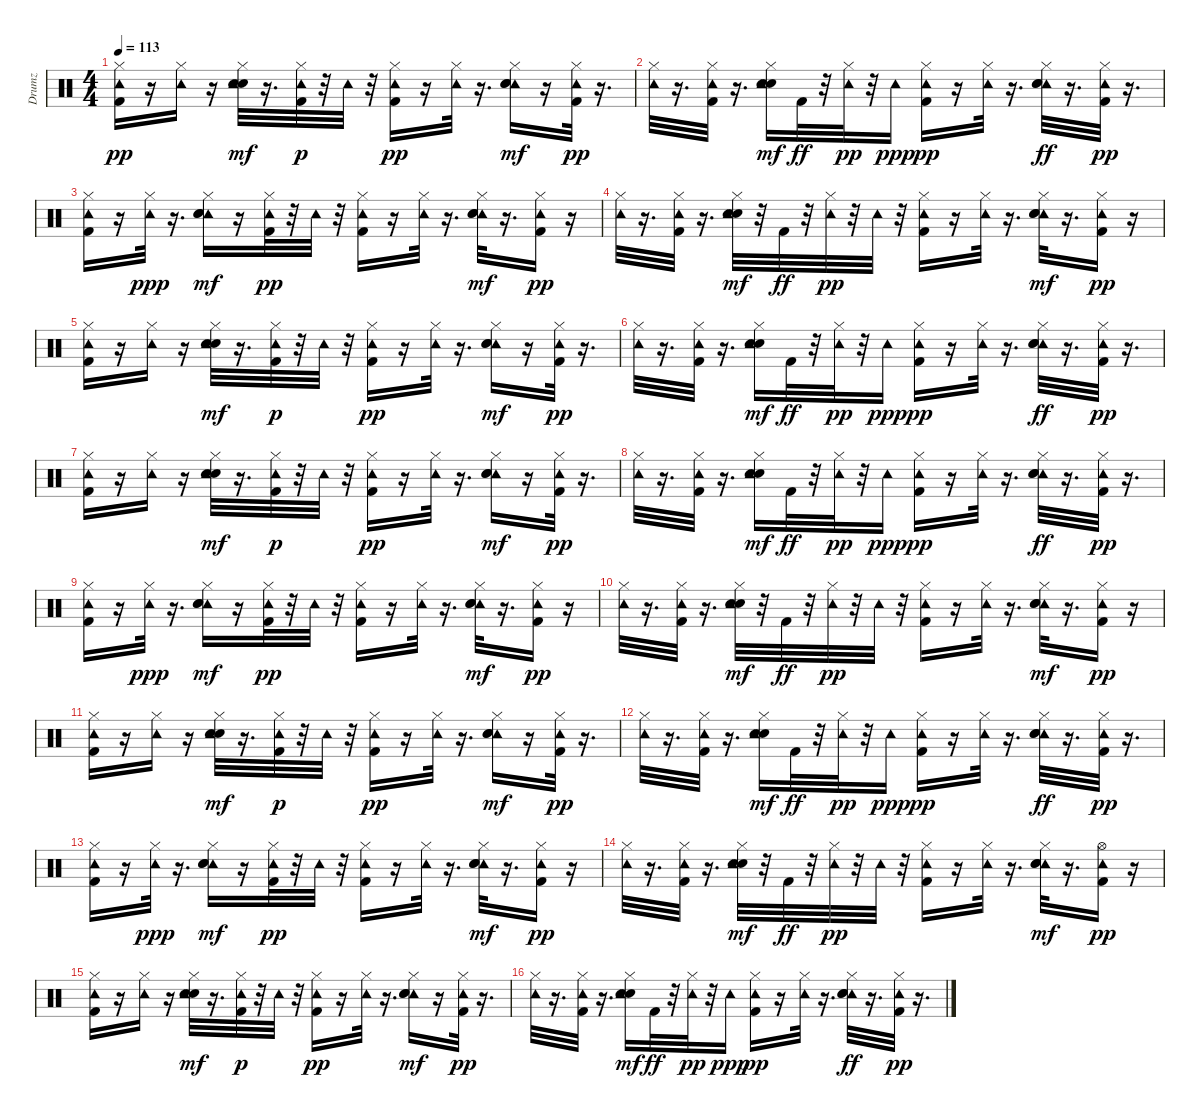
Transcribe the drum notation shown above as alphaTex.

\track ("Drumz" "Drumz") {instrument percussion}
\staff {score}
\articulation defaults
\ts (4 4)
\tempo 113
\clef neutral
\ks c
("Hi-Hat (closed)" "Kick (hit) 2" "Tambourine (hit)").16{dy pp} r.16 ("Hi-Hat (closed)" "Tambourine (hit)").16 r.16 ("Electric Snare (hit)" "Hand Clap (hit)" "Hi-Hat (closed)" "Tambourine (hit)").32{dy mf} r.16{d} ("Hi-Hat (closed)" "Kick (hit) 2" "Tambourine (hit)").32{dy p} r.32 "Tambourine (hit)".32 r.32 ("Kick (hit) 2" "Hi-Hat (closed)" "Tambourine (hit)").16{dy pp} r.16 ("Hi-Hat (closed)" "Tambourine (hit)").32 r.16{d} ("Tambourine (hit)" "Electric Snare (hit)" "Hi-Hat (closed)" "Hand Clap (hit)").16{dy mf} r.16 ("Hi-Hat (closed)" "Kick (hit) 2" "Tambourine (hit)").32{dy pp} r.16{d} |
("Hi-Hat (closed)" "Tambourine (hit)").32 r.16{d} ("Kick (hit) 2" "Hi-Hat (closed)" "Tambourine (hit)").32 r.16{d} ("Electric Snare (hit)" "Hand Clap (hit)" "Hi-Hat (closed)" "Tambourine (hit)").16{dy mf} "Kick (hit) 2".32{dy ff} r.32 ("Hi-Hat (closed)" "Tambourine (hit)").32{dy pp} r.32 "Tambourine (hit)".16{dy ppp} ("Hi-Hat (closed)" "Kick (hit) 2" "Tambourine (hit)").16{dy pp} r.16 ("Hi-Hat (closed)" "Tambourine (hit)").32 r.16{d} ("Tambourine (hit)" "Hi-Hat (closed)" "Hand Clap (hit)" "Electric Snare (hit)").32{dy ff} r.16{d} ("Hi-Hat (closed)" "Kick (hit) 2" "Tambourine (hit)").32{dy pp} r.16{d} |
("Hi-Hat (closed)" "Kick (hit) 2" "Tambourine (hit)").16 r.16 ("Hi-Hat (closed)" "Tambourine (hit)").32{dy ppp} r.16{d} ("Tambourine (hit)" "Electric Snare (hit)" "Hi-Hat (closed)" "Hand Clap (hit)").16{dy mf} r.16 ("Kick (hit) 2" "Hi-Hat (closed)" "Tambourine (hit)").32{dy pp} r.32 "Tambourine (hit)".32 r.32 ("Kick (hit) 2" "Hi-Hat (closed)" "Tambourine (hit)").16 r.16 ("Hi-Hat (closed)" "Tambourine (hit)").32 r.16{d} ("Tambourine (hit)" "Electric Snare (hit)" "Hi-Hat (closed)" "Hand Clap (hit)").32{dy mf} r.16{d} ("Hi-Hat (closed)" "Kick (hit) 2" "Tambourine (hit)").16{dy pp} r.16 |
("Hi-Hat (closed)" "Tambourine (hit)").32 r.16{d} ("Kick (hit) 2" "Hi-Hat (closed)" "Tambourine (hit)").32 r.16{d} ("Hand Clap (hit)" "Electric Snare (hit)" "Hi-Hat (closed)" "Tambourine (hit)").32{dy mf} r.32 "Kick (hit) 2".32{dy ff} r.32 ("Hi-Hat (closed)" "Tambourine (hit)").32{dy pp} r.32 "Tambourine (hit)".32 r.32 ("Kick (hit) 2" "Hi-Hat (closed)" "Tambourine (hit)").16 r.16 ("Hi-Hat (closed)" "Tambourine (hit)").32 r.16{d} ("Tambourine (hit)" "Hand Clap (hit)" "Electric Snare (hit)" "Hi-Hat (closed)").32{dy mf} r.16{d} ("Kick (hit) 2" "Hi-Hat (closed)" "Tambourine (hit)").16{dy pp} r.16 |
("Hi-Hat (closed)" "Kick (hit) 2" "Tambourine (hit)").16 r.16 ("Hi-Hat (closed)" "Tambourine (hit)").16 r.16 ("Electric Snare (hit)" "Hand Clap (hit)" "Hi-Hat (closed)" "Tambourine (hit)").32{dy mf} r.16{d} ("Hi-Hat (closed)" "Kick (hit) 2" "Tambourine (hit)").32{dy p} r.32 "Tambourine (hit)".32 r.32 ("Kick (hit) 2" "Hi-Hat (closed)" "Tambourine (hit)").16{dy pp} r.16 ("Hi-Hat (closed)" "Tambourine (hit)").32 r.16{d} ("Tambourine (hit)" "Electric Snare (hit)" "Hi-Hat (closed)" "Hand Clap (hit)").16{dy mf} r.16 ("Hi-Hat (closed)" "Kick (hit) 2" "Tambourine (hit)").32{dy pp} r.16{d} |
("Hi-Hat (closed)" "Tambourine (hit)").32 r.16{d} ("Kick (hit) 2" "Hi-Hat (closed)" "Tambourine (hit)").32 r.16{d} ("Electric Snare (hit)" "Hand Clap (hit)" "Hi-Hat (closed)" "Tambourine (hit)").16{dy mf} "Kick (hit) 2".32{dy ff} r.32 ("Hi-Hat (closed)" "Tambourine (hit)").32{dy pp} r.32 "Tambourine (hit)".16{dy ppp} ("Hi-Hat (closed)" "Kick (hit) 2" "Tambourine (hit)").16{dy pp} r.16 ("Hi-Hat (closed)" "Tambourine (hit)").32 r.16{d} ("Tambourine (hit)" "Hi-Hat (closed)" "Hand Clap (hit)" "Electric Snare (hit)").32{dy ff} r.16{d} ("Hi-Hat (closed)" "Kick (hit) 2" "Tambourine (hit)").32{dy pp} r.16{d} |
("Hi-Hat (closed)" "Kick (hit) 2" "Tambourine (hit)").16 r.16 ("Hi-Hat (closed)" "Tambourine (hit)").16 r.16 ("Electric Snare (hit)" "Hand Clap (hit)" "Hi-Hat (closed)" "Tambourine (hit)").32{dy mf} r.16{d} ("Hi-Hat (closed)" "Kick (hit) 2" "Tambourine (hit)").32{dy p} r.32 "Tambourine (hit)".32 r.32 ("Kick (hit) 2" "Hi-Hat (closed)" "Tambourine (hit)").16{dy pp} r.16 ("Hi-Hat (closed)" "Tambourine (hit)").32 r.16{d} ("Tambourine (hit)" "Electric Snare (hit)" "Hi-Hat (closed)" "Hand Clap (hit)").16{dy mf} r.16 ("Hi-Hat (closed)" "Kick (hit) 2" "Tambourine (hit)").32{dy pp} r.16{d} |
("Hi-Hat (closed)" "Tambourine (hit)").32 r.16{d} ("Kick (hit) 2" "Hi-Hat (closed)" "Tambourine (hit)").32 r.16{d} ("Electric Snare (hit)" "Hand Clap (hit)" "Hi-Hat (closed)" "Tambourine (hit)").16{dy mf} "Kick (hit) 2".32{dy ff} r.32 ("Hi-Hat (closed)" "Tambourine (hit)").32{dy pp} r.32 "Tambourine (hit)".16{dy ppp} ("Hi-Hat (closed)" "Kick (hit) 2" "Tambourine (hit)").16{dy pp} r.16 ("Hi-Hat (closed)" "Tambourine (hit)").32 r.16{d} ("Tambourine (hit)" "Hi-Hat (closed)" "Hand Clap (hit)" "Electric Snare (hit)").32{dy ff} r.16{d} ("Hi-Hat (closed)" "Kick (hit) 2" "Tambourine (hit)").32{dy pp} r.16{d} |
("Hi-Hat (closed)" "Kick (hit) 2" "Tambourine (hit)").16 r.16 ("Hi-Hat (closed)" "Tambourine (hit)").32{dy ppp} r.16{d} ("Tambourine (hit)" "Electric Snare (hit)" "Hi-Hat (closed)" "Hand Clap (hit)").16{dy mf} r.16 ("Kick (hit) 2" "Hi-Hat (closed)" "Tambourine (hit)").32{dy pp} r.32 "Tambourine (hit)".32 r.32 ("Kick (hit) 2" "Hi-Hat (closed)" "Tambourine (hit)").16 r.16 ("Hi-Hat (closed)" "Tambourine (hit)").32 r.16{d} ("Tambourine (hit)" "Electric Snare (hit)" "Hi-Hat (closed)" "Hand Clap (hit)").32{dy mf} r.16{d} ("Hi-Hat (closed)" "Kick (hit) 2" "Tambourine (hit)").16{dy pp} r.16 |
("Hi-Hat (closed)" "Tambourine (hit)").32 r.16{d} ("Kick (hit) 2" "Hi-Hat (closed)" "Tambourine (hit)").32 r.16{d} ("Hand Clap (hit)" "Electric Snare (hit)" "Hi-Hat (closed)" "Tambourine (hit)").32{dy mf} r.32 "Kick (hit) 2".32{dy ff} r.32 ("Hi-Hat (closed)" "Tambourine (hit)").32{dy pp} r.32 "Tambourine (hit)".32 r.32 ("Kick (hit) 2" "Hi-Hat (closed)" "Tambourine (hit)").16 r.16 ("Hi-Hat (closed)" "Tambourine (hit)").32 r.16{d} ("Tambourine (hit)" "Hand Clap (hit)" "Electric Snare (hit)" "Hi-Hat (closed)").32{dy mf} r.16{d} ("Kick (hit) 2" "Hi-Hat (closed)" "Tambourine (hit)").16{dy pp} r.16 |
("Hi-Hat (closed)" "Kick (hit) 2" "Tambourine (hit)").16 r.16 ("Hi-Hat (closed)" "Tambourine (hit)").16 r.16 ("Electric Snare (hit)" "Hand Clap (hit)" "Hi-Hat (closed)" "Tambourine (hit)").32{dy mf} r.16{d} ("Hi-Hat (closed)" "Kick (hit) 2" "Tambourine (hit)").32{dy p} r.32 "Tambourine (hit)".32 r.32 ("Kick (hit) 2" "Hi-Hat (closed)" "Tambourine (hit)").16{dy pp} r.16 ("Hi-Hat (closed)" "Tambourine (hit)").32 r.16{d} ("Tambourine (hit)" "Electric Snare (hit)" "Hi-Hat (closed)" "Hand Clap (hit)").16{dy mf} r.16 ("Hi-Hat (closed)" "Kick (hit) 2" "Tambourine (hit)").32{dy pp} r.16{d} |
("Hi-Hat (closed)" "Tambourine (hit)").32 r.16{d} ("Kick (hit) 2" "Hi-Hat (closed)" "Tambourine (hit)").32 r.16{d} ("Electric Snare (hit)" "Hand Clap (hit)" "Hi-Hat (closed)" "Tambourine (hit)").16{dy mf} "Kick (hit) 2".32{dy ff} r.32 ("Hi-Hat (closed)" "Tambourine (hit)").32{dy pp} r.32 "Tambourine (hit)".16{dy ppp} ("Hi-Hat (closed)" "Kick (hit) 2" "Tambourine (hit)").16{dy pp} r.16 ("Hi-Hat (closed)" "Tambourine (hit)").32 r.16{d} ("Tambourine (hit)" "Hi-Hat (closed)" "Hand Clap (hit)" "Electric Snare (hit)").32{dy ff} r.16{d} ("Hi-Hat (closed)" "Kick (hit) 2" "Tambourine (hit)").32{dy pp} r.16{d} |
("Hi-Hat (closed)" "Kick (hit) 2" "Tambourine (hit)").16 r.16 ("Hi-Hat (closed)" "Tambourine (hit)").32{dy ppp} r.16{d} ("Tambourine (hit)" "Electric Snare (hit)" "Hi-Hat (closed)" "Hand Clap (hit)").16{dy mf} r.16 ("Kick (hit) 2" "Hi-Hat (closed)" "Tambourine (hit)").32{dy pp} r.32 "Tambourine (hit)".32 r.32 ("Kick (hit) 2" "Hi-Hat (closed)" "Tambourine (hit)").16 r.16 ("Hi-Hat (closed)" "Tambourine (hit)").32 r.16{d} ("Tambourine (hit)" "Electric Snare (hit)" "Hi-Hat (closed)" "Hand Clap (hit)").32{dy mf} r.16{d} ("Hi-Hat (closed)" "Kick (hit) 2" "Tambourine (hit)").16{dy pp} r.16 |
("Hi-Hat (closed)" "Tambourine (hit)").32 r.16{d} ("Kick (hit) 2" "Hi-Hat (closed)" "Tambourine (hit)").32 r.16{d} ("Hand Clap (hit)" "Electric Snare (hit)" "Hi-Hat (closed)" "Tambourine (hit)").32{dy mf} r.32 "Kick (hit) 2".32{dy ff} r.32 ("Hi-Hat (closed)" "Tambourine (hit)").32{dy pp} r.32 "Tambourine (hit)".32 r.32 ("Kick (hit) 2" "Hi-Hat (closed)" "Tambourine (hit)").16 r.16 ("Hi-Hat (closed)" "Tambourine (hit)").32 r.16{d} ("Tambourine (hit)" "Hand Clap (hit)" "Electric Snare (hit)" "Hi-Hat (closed)").32{dy mf} r.16{d} ("Hi-Hat (open)" "Kick (hit) 2" "Tambourine (hit)").16{dy pp} r.16 |
("Hi-Hat (closed)" "Kick (hit) 2" "Tambourine (hit)").16 r.16 ("Hi-Hat (closed)" "Tambourine (hit)").16 r.16 ("Electric Snare (hit)" "Hand Clap (hit)" "Hi-Hat (closed)" "Tambourine (hit)").32{dy mf} r.16{d} ("Hi-Hat (closed)" "Kick (hit) 2" "Tambourine (hit)").32{dy p} r.32 "Tambourine (hit)".32 r.32 ("Kick (hit) 2" "Hi-Hat (closed)" "Tambourine (hit)").16{dy pp} r.16 ("Hi-Hat (closed)" "Tambourine (hit)").32 r.16{d} ("Tambourine (hit)" "Electric Snare (hit)" "Hi-Hat (closed)" "Hand Clap (hit)").16{dy mf} r.16 ("Hi-Hat (closed)" "Kick (hit) 2" "Tambourine (hit)").32{dy pp} r.16{d} |
("Hi-Hat (closed)" "Tambourine (hit)").32 r.16{d} ("Kick (hit) 2" "Hi-Hat (closed)" "Tambourine (hit)").32 r.16{d} ("Electric Snare (hit)" "Hand Clap (hit)" "Hi-Hat (closed)" "Tambourine (hit)").16{dy mf} "Kick (hit) 2".32{dy ff} r.32 ("Hi-Hat (closed)" "Tambourine (hit)").32{dy pp} r.32 "Tambourine (hit)".16{dy ppp} ("Hi-Hat (closed)" "Kick (hit) 2" "Tambourine (hit)").16{dy pp} r.16 ("Hi-Hat (closed)" "Tambourine (hit)").32 r.16{d} ("Tambourine (hit)" "Hi-Hat (closed)" "Hand Clap (hit)" "Electric Snare (hit)").32{dy ff} r.16{d} ("Hi-Hat (closed)" "Kick (hit) 2" "Tambourine (hit)").32{dy pp} r.16{d}
